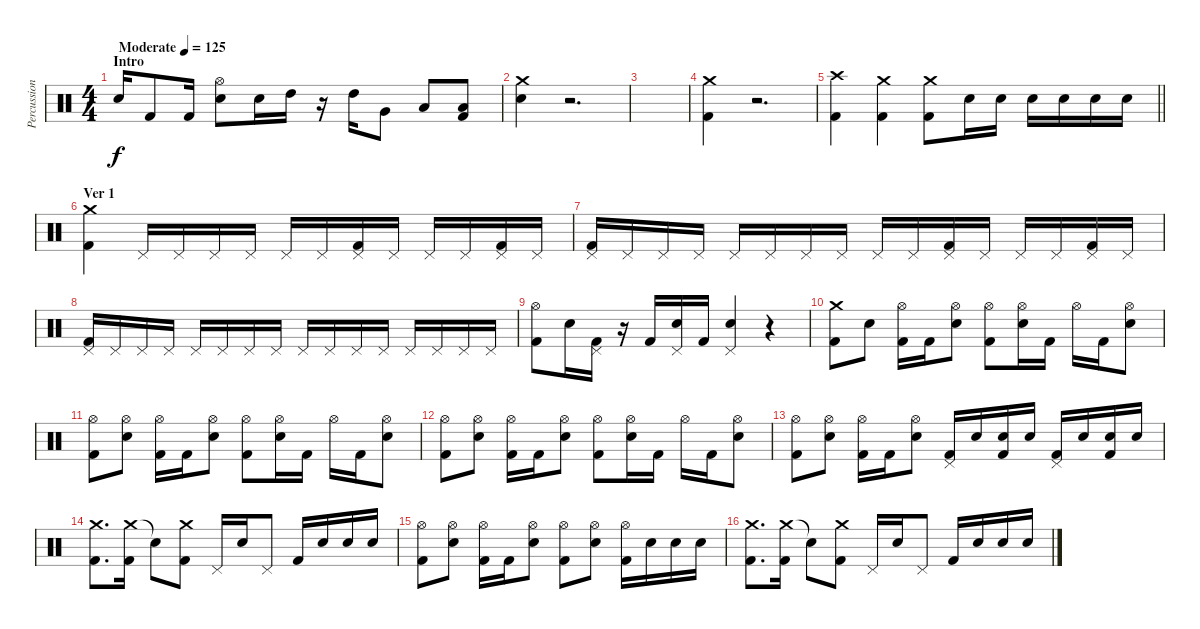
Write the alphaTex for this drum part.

\track ("Percussion" "Percussion") {instrument percussion}
\staff {score}
\articulation defaults
\ts (4 4)
\section ("" "Intro")
\tempo (125 "Moderate")
\clef neutral
\ks c "Electric Snare (hit)".16{dy f} "Kick (hit) 2".8 "Kick (hit) 2".16
("Hi-Hat (open)" "Electric Snare (hit)").8 "Electric Snare (hit)".16 "High Tom (hit)".16 r.16 "High Tom (hit)".16 "Very Low Tom (hit)".8 "Low Floor Tom (hit)".8 ("Low Floor Tom (hit)" "Kick (hit) 2").8 |
("Crash medium (hit)" "Electric Snare (hit)").4 r.2{d} |
|
("Crash medium (hit)" "Kick (hit) 2").4 r.2{d} |
\barLineRight lightlight
("Crash high (hit)" "Kick (hit) 2").4 ("Crash medium (hit)" "Kick (hit) 2").4 ("Crash medium (hit)" "Kick (hit) 2").8 "Electric Snare (hit)".16 "Electric Snare (hit)".16 "Electric Snare (hit)".16 "Electric Snare (hit)".16 "Electric Snare (hit)".16 "Electric Snare (hit)".16 |
\section ("" "Ver 1")
("Crash medium (hit)" "Kick (hit) 2").4 "Pedal Hi-Hat (hit)".16 "Pedal Hi-Hat (hit)".16 "Pedal Hi-Hat (hit)".16 "Pedal Hi-Hat (hit)".16 "Pedal Hi-Hat (hit)".16 "Pedal Hi-Hat (hit)".16 ("Pedal Hi-Hat (hit)" "Kick (hit) 2").16 "Pedal Hi-Hat (hit)".16 "Pedal Hi-Hat (hit)".16 "Pedal Hi-Hat (hit)".16 ("Pedal Hi-Hat (hit)" "Kick (hit) 2").16 "Pedal Hi-Hat (hit)".16 |
("Pedal Hi-Hat (hit)" "Kick (hit) 2").16 "Pedal Hi-Hat (hit)".16 "Pedal Hi-Hat (hit)".16 "Pedal Hi-Hat (hit)".16 "Pedal Hi-Hat (hit)".16 "Pedal Hi-Hat (hit)".16 "Pedal Hi-Hat (hit)".16 "Pedal Hi-Hat (hit)".16 "Pedal Hi-Hat (hit)".16 "Pedal Hi-Hat (hit)".16 ("Pedal Hi-Hat (hit)" "Kick (hit) 2").16 "Pedal Hi-Hat (hit)".16 "Pedal Hi-Hat (hit)".16 "Pedal Hi-Hat (hit)".16 ("Pedal Hi-Hat (hit)" "Kick (hit) 2").16 "Pedal Hi-Hat (hit)".16 |
("Pedal Hi-Hat (hit)" "Kick (hit) 2").16 "Pedal Hi-Hat (hit)".16 "Pedal Hi-Hat (hit)".16 "Pedal Hi-Hat (hit)".16 "Pedal Hi-Hat (hit)".16 "Pedal Hi-Hat (hit)".16 "Pedal Hi-Hat (hit)".16 "Pedal Hi-Hat (hit)".16 "Pedal Hi-Hat (hit)".16 "Pedal Hi-Hat (hit)".16 "Pedal Hi-Hat (hit)".16 "Pedal Hi-Hat (hit)".16 "Pedal Hi-Hat (hit)".16 "Pedal Hi-Hat (hit)".16 "Pedal Hi-Hat (hit)".16 "Pedal Hi-Hat (hit)".16 |
("Hi-Hat (open)" "Kick (hit) 2").8 "Electric Snare (hit)".16 ("Pedal Hi-Hat (hit)" "Kick (hit) 2").16 r.16 "Kick (hit) 2".16 ("Pedal Hi-Hat (hit)" "Electric Snare (hit)").16 "Kick (hit) 2".16 ("Pedal Hi-Hat (hit)" "Electric Snare (hit)").4 r.4 |
("Crash medium (hit)" "Kick (hit) 2").8 "Electric Snare (hit)".8 ("Hi-Hat (open)" "Kick (hit) 2").16 "Kick (hit) 2".16 ("Hi-Hat (open)" "Electric Snare (hit)").8 ("Hi-Hat (open)" "Kick (hit) 2").8 ("Hi-Hat (open)" "Electric Snare (hit)").16 "Kick (hit) 2".16 "Hi-Hat (open)".16 "Kick (hit) 2".16 ("Hi-Hat (open)" "Electric Snare (hit)").8 |
("Hi-Hat (open)" "Kick (hit) 2").8 ("Hi-Hat (open)" "Electric Snare (hit)").8 ("Hi-Hat (open)" "Kick (hit) 2").16 "Kick (hit) 2".16 ("Hi-Hat (open)" "Electric Snare (hit)").8 ("Hi-Hat (open)" "Kick (hit) 2").8 ("Hi-Hat (open)" "Electric Snare (hit)").16 "Kick (hit) 2".16 "Hi-Hat (open)".16 "Kick (hit) 2".16 ("Hi-Hat (open)" "Electric Snare (hit)").8 |
("Hi-Hat (open)" "Kick (hit) 2").8 ("Hi-Hat (open)" "Electric Snare (hit)").8 ("Hi-Hat (open)" "Kick (hit) 2").16 "Kick (hit) 2".16 ("Hi-Hat (open)" "Electric Snare (hit)").8 ("Hi-Hat (open)" "Kick (hit) 2").8 ("Hi-Hat (open)" "Electric Snare (hit)").16 "Kick (hit) 2".16 "Hi-Hat (open)".16 "Kick (hit) 2".16 ("Hi-Hat (open)" "Electric Snare (hit)").8 |
("Hi-Hat (open)" "Kick (hit) 2").8 ("Hi-Hat (open)" "Electric Snare (hit)").8 ("Hi-Hat (open)" "Kick (hit) 2").16 "Kick (hit) 2".16 ("Hi-Hat (open)" "Electric Snare (hit)").8 ("Pedal Hi-Hat (hit)" "Kick (hit) 2").16 "Electric Snare (hit)".16 ("Electric Snare (hit)" "Kick (hit) 2").16 "Electric Snare (hit)".16 ("Pedal Hi-Hat (hit)" "Kick (hit) 2").16 "Electric Snare (hit)".16 ("Electric Snare (hit)" "Kick (hit) 2").16 "Electric Snare (hit)".16 |
("Crash medium (hit)" "Kick (hit) 2").8{d} ("Crash medium (hit)" "Kick (hit) 2").16 "Snare (hit)"{t}.8 ("Crash medium (hit)" "Kick (hit) 2").8 "Pedal Hi-Hat (hit)".16 "Electric Snare (hit)".16 "Pedal Hi-Hat (hit)".8 "Kick (hit) 2".16 "Electric Snare (hit)".16 "Electric Snare (hit)".16 "Electric Snare (hit)".16 |
("Hi-Hat (open)" "Kick (hit) 2").8 ("Hi-Hat (open)" "Electric Snare (hit)").8 ("Hi-Hat (open)" "Kick (hit) 2").16 "Kick (hit) 2".16 ("Hi-Hat (open)" "Electric Snare (hit)").8 ("Hi-Hat (open)" "Kick (hit) 2").8 ("Hi-Hat (open)" "Electric Snare (hit)").8 ("Hi-Hat (open)" "Kick (hit) 2").16 "Electric Snare (hit)".16 "Electric Snare (hit)".16 "Electric Snare (hit)".16 |
("Crash medium (hit)" "Kick (hit) 2").8{d} ("Crash medium (hit)" "Kick (hit) 2").16 "Snare (hit)"{t}.8 ("Crash medium (hit)" "Kick (hit) 2").8 "Pedal Hi-Hat (hit)".16 "Electric Snare (hit)".16 "Pedal Hi-Hat (hit)".8 "Kick (hit) 2".16 "Electric Snare (hit)".16 "Electric Snare (hit)".16 "Electric Snare (hit)".16
